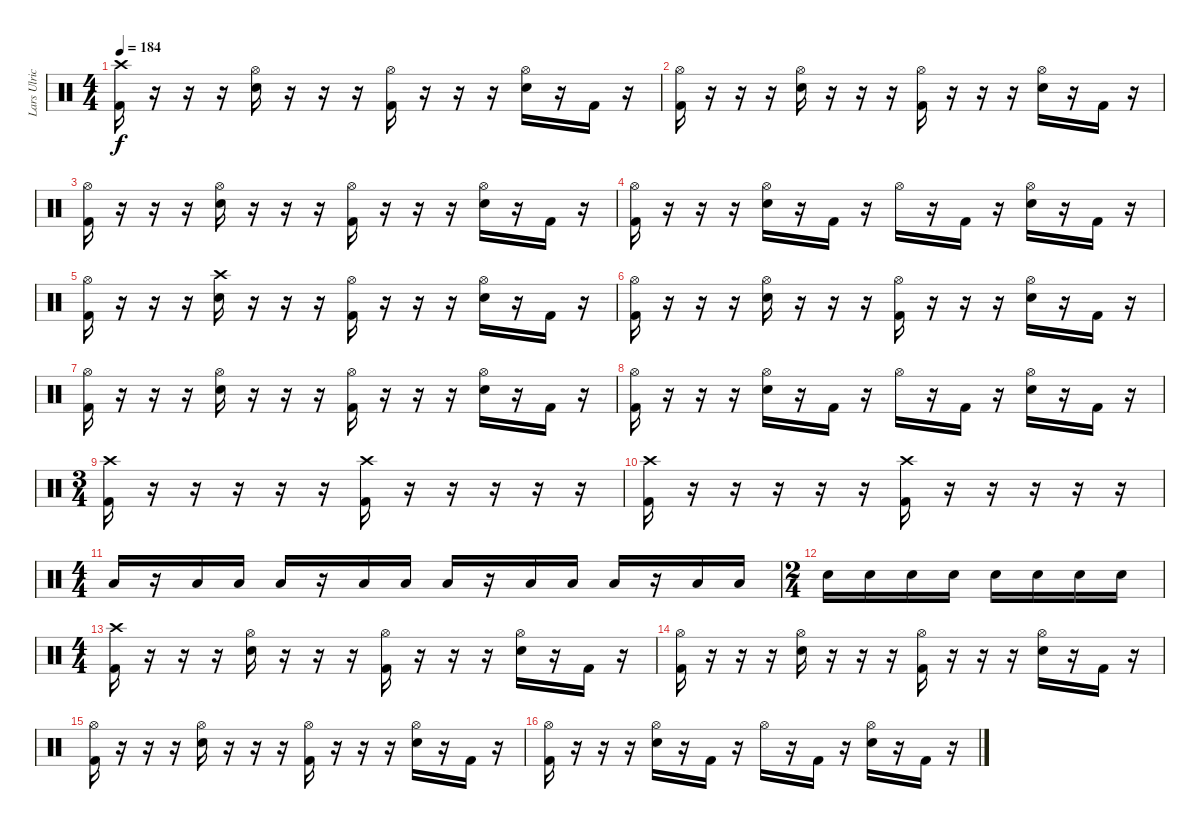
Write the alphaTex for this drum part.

\track ("Lars Ulrich" "Lars Ulric") {instrument percussion}
\staff {score}
\articulation defaults
\ts (4 4)
\section ("" "")
\tempo 184
\clef neutral
\ks c
("Crash high (hit)" "Kick (hit) 2").16{dy f} r.16 r.16 r.16 ("Electric Snare (hit)" "Hi-Hat (open)").16 r.16 r.16 r.16 ("Hi-Hat (open)" "Kick (hit) 2").16 r.16 r.16 r.16 ("Electric Snare (hit)" "Hi-Hat (open)").16 r.16 "Kick (hit) 2".16 r.16 |
("Hi-Hat (open)" "Kick (hit) 2").16 r.16 r.16 r.16 ("Electric Snare (hit)" "Hi-Hat (open)").16 r.16 r.16 r.16 ("Hi-Hat (open)" "Kick (hit) 2").16 r.16 r.16 r.16 ("Electric Snare (hit)" "Hi-Hat (open)").16 r.16 "Kick (hit) 2".16 r.16 |
("Hi-Hat (open)" "Kick (hit) 2").16 r.16 r.16 r.16 ("Electric Snare (hit)" "Hi-Hat (open)").16 r.16 r.16 r.16 ("Hi-Hat (open)" "Kick (hit) 2").16 r.16 r.16 r.16 ("Electric Snare (hit)" "Hi-Hat (open)").16 r.16 "Kick (hit) 2".16 r.16 |
("Hi-Hat (open)" "Kick (hit) 2").16 r.16 r.16 r.16 ("Electric Snare (hit)" "Hi-Hat (open)").16 r.16 "Kick (hit) 2".16 r.16 "Hi-Hat (open)".16 r.16 "Kick (hit) 2".16 r.16 ("Electric Snare (hit)" "Hi-Hat (open)").16 r.16 "Kick (hit) 2".16 r.16 |
("Hi-Hat (open)" "Kick (hit) 2").16 r.16 r.16 r.16 ("Crash high (hit)" "Electric Snare (hit)").16 r.16 r.16 r.16 ("Hi-Hat (open)" "Kick (hit) 2").16 r.16 r.16 r.16 ("Electric Snare (hit)" "Hi-Hat (open)").16 r.16 "Kick (hit) 2".16 r.16 |
("Hi-Hat (open)" "Kick (hit) 2").16 r.16 r.16 r.16 ("Electric Snare (hit)" "Hi-Hat (open)").16 r.16 r.16 r.16 ("Hi-Hat (open)" "Kick (hit) 2").16 r.16 r.16 r.16 ("Electric Snare (hit)" "Hi-Hat (open)").16 r.16 "Kick (hit) 2".16 r.16 |
("Hi-Hat (open)" "Kick (hit) 2").16 r.16 r.16 r.16 ("Electric Snare (hit)" "Hi-Hat (open)").16 r.16 r.16 r.16 ("Hi-Hat (open)" "Kick (hit) 2").16 r.16 r.16 r.16 ("Electric Snare (hit)" "Hi-Hat (open)").16 r.16 "Kick (hit) 2".16 r.16 |
("Hi-Hat (open)" "Kick (hit) 2").16 r.16 r.16 r.16 ("Electric Snare (hit)" "Hi-Hat (open)").16 r.16 "Kick (hit) 2".16 r.16 "Hi-Hat (open)".16 r.16 "Kick (hit) 2".16 r.16 ("Electric Snare (hit)" "Hi-Hat (open)").16 r.16 "Kick (hit) 2".16 r.16 |
\ts (3 4)
("Crash high (hit)" "Kick (hit) 2").16 r.16 r.16 r.16 r.16 r.16 ("Crash high (hit)" "Kick (hit) 2").16 r.16 r.16 r.16 r.16 r.16 |
("Crash high (hit)" "Kick (hit) 2").16 r.16 r.16 r.16 r.16 r.16 ("Crash high (hit)" "Kick (hit) 2").16 r.16 r.16 r.16 r.16 r.16 |
\ts (4 4)
"Low Tom (hit)".16 r.16 "Low Tom (hit)".16 "Low Tom (hit)".16 "Low Tom (hit)".16 r.16 "Low Tom (hit)".16 "Low Tom (hit)".16 "Low Tom (hit)".16 r.16 "Low Tom (hit)".16 "Low Tom (hit)".16 "Low Tom (hit)".16 r.16 "Low Tom (hit)".16 "Low Tom (hit)".16 |
\ts (2 4)
"Electric Snare (hit)".16 "Electric Snare (hit)".16 "Electric Snare (hit)".16 "Electric Snare (hit)".16 "Electric Snare (hit)".16 "Electric Snare (hit)".16 "Electric Snare (hit)".16 "Electric Snare (hit)".16 |
\ts (4 4)
("Crash high (hit)" "Kick (hit) 2").16 r.16 r.16 r.16 ("Electric Snare (hit)" "Hi-Hat (open)").16 r.16 r.16 r.16 ("Hi-Hat (open)" "Kick (hit) 2").16 r.16 r.16 r.16 ("Electric Snare (hit)" "Hi-Hat (open)").16 r.16 "Kick (hit) 2".16 r.16 |
("Hi-Hat (open)" "Kick (hit) 2").16 r.16 r.16 r.16 ("Electric Snare (hit)" "Hi-Hat (open)").16 r.16 r.16 r.16 ("Hi-Hat (open)" "Kick (hit) 2").16 r.16 r.16 r.16 ("Electric Snare (hit)" "Hi-Hat (open)").16 r.16 "Kick (hit) 2".16 r.16 |
("Hi-Hat (open)" "Kick (hit) 2").16 r.16 r.16 r.16 ("Electric Snare (hit)" "Hi-Hat (open)").16 r.16 r.16 r.16 ("Hi-Hat (open)" "Kick (hit) 2").16 r.16 r.16 r.16 ("Electric Snare (hit)" "Hi-Hat (open)").16 r.16 "Kick (hit) 2".16 r.16 |
("Hi-Hat (open)" "Kick (hit) 2").16 r.16 r.16 r.16 ("Electric Snare (hit)" "Hi-Hat (open)").16 r.16 "Kick (hit) 2".16 r.16 "Hi-Hat (open)".16 r.16 "Kick (hit) 2".16 r.16 ("Electric Snare (hit)" "Hi-Hat (open)").16 r.16 "Kick (hit) 2".16 r.16
